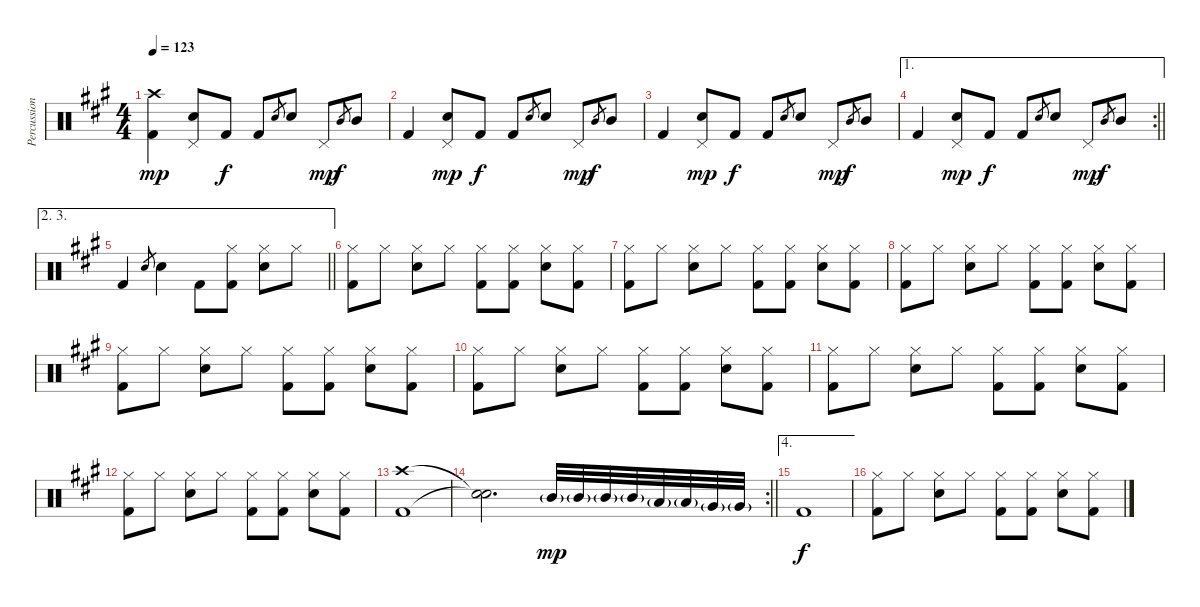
\track ("Percussion" "Percussion") {instrument percussion}
\staff {score}
\articulation defaults
\ts (4 4)
\tempo 123
\clef neutral
\ks a
("Crash high (hit)" "Kick (hit) 2").4{dy mp} ("Snare (hit) 2" "Pedal Hi-Hat (hit)").8 "Kick (hit) 2".8{dy f} "Kick (hit) 2".8 "Snare (hit) 2".8{gr} "Snare (hit) 2".8 "Pedal Hi-Hat (hit)".8{dy mp} "Mid Tom (hit)".8{gr dy f} "Mid Tom (hit)".8 |
"Kick (hit) 2".4 ("Snare (hit) 2" "Pedal Hi-Hat (hit)").8{dy mp} "Kick (hit) 2".8{dy f} "Kick (hit) 2".8 "Snare (hit) 2".8{gr} "Snare (hit) 2".8 "Pedal Hi-Hat (hit)".8{dy mp} "Mid Tom (hit)".8{gr dy f} "Mid Tom (hit)".8 |
"Kick (hit) 2".4 ("Snare (hit) 2" "Pedal Hi-Hat (hit)").8{dy mp} "Kick (hit) 2".8{dy f} "Kick (hit) 2".8 "Snare (hit) 2".8{gr} "Snare (hit) 2".8 "Pedal Hi-Hat (hit)".8{dy mp} "Mid Tom (hit)".8{gr dy f} "Mid Tom (hit)".8 |
\ae 1
\rc 2
\barLineRight lightlight "Kick (hit) 2".4
("Snare (hit) 2" "Pedal Hi-Hat (hit)").8{dy mp} "Kick (hit) 2".8{dy f} "Kick (hit) 2".8 "Snare (hit) 2".8{gr} "Snare (hit) 2".8 "Pedal Hi-Hat (hit)".8{dy mp} "Mid Tom (hit)".8{gr dy f} "Mid Tom (hit)".8 |
\ae (2 3)
\barLineRight lightlight "Kick (hit) 2".4 "Snare (hit) 2".8{gr} "Snare (hit) 2".4 "Kick (hit) 2".8
("Hi-Hat (closed)" "Kick (hit) 2").8 ("Hi-Hat (closed)" "Snare (hit) 2").8 "Hi-Hat (closed)".8 |
("Hi-Hat (closed)" "Kick (hit) 2").8 "Hi-Hat (closed)".8 ("Hi-Hat (closed)" "Snare (hit) 2").8 "Hi-Hat (closed)".8 ("Hi-Hat (closed)" "Kick (hit) 2").8 ("Hi-Hat (closed)" "Kick (hit) 2").8 ("Hi-Hat (closed)" "Snare (hit) 2").8 ("Hi-Hat (closed)" "Kick (hit) 2").8 |
("Hi-Hat (closed)" "Kick (hit) 2").8 "Hi-Hat (closed)".8 ("Hi-Hat (closed)" "Snare (hit) 2").8 "Hi-Hat (closed)".8 ("Hi-Hat (closed)" "Kick (hit) 2").8 ("Hi-Hat (closed)" "Kick (hit) 2").8 ("Hi-Hat (closed)" "Snare (hit) 2").8 ("Hi-Hat (closed)" "Kick (hit) 2").8 |
("Hi-Hat (closed)" "Kick (hit) 2").8 "Hi-Hat (closed)".8 ("Hi-Hat (closed)" "Snare (hit) 2").8 "Hi-Hat (closed)".8 ("Hi-Hat (closed)" "Kick (hit) 2").8 ("Hi-Hat (closed)" "Kick (hit) 2").8 ("Hi-Hat (closed)" "Snare (hit) 2").8 ("Hi-Hat (closed)" "Kick (hit) 2").8 |
("Hi-Hat (closed)" "Kick (hit) 2").8 "Hi-Hat (closed)".8 ("Hi-Hat (closed)" "Snare (hit) 2").8 "Hi-Hat (closed)".8 ("Hi-Hat (closed)" "Kick (hit) 2").8 ("Hi-Hat (closed)" "Kick (hit) 2").8 ("Hi-Hat (closed)" "Snare (hit) 2").8 ("Hi-Hat (closed)" "Kick (hit) 2").8 |
("Hi-Hat (closed)" "Kick (hit) 2").8 "Hi-Hat (closed)".8 ("Hi-Hat (closed)" "Snare (hit) 2").8 "Hi-Hat (closed)".8 ("Hi-Hat (closed)" "Kick (hit) 2").8 ("Hi-Hat (closed)" "Kick (hit) 2").8 ("Hi-Hat (closed)" "Snare (hit) 2").8 ("Hi-Hat (closed)" "Kick (hit) 2").8 |
("Hi-Hat (closed)" "Kick (hit) 2").8 "Hi-Hat (closed)".8 ("Hi-Hat (closed)" "Snare (hit) 2").8 "Hi-Hat (closed)".8 ("Hi-Hat (closed)" "Kick (hit) 2").8 ("Hi-Hat (closed)" "Kick (hit) 2").8 ("Hi-Hat (closed)" "Snare (hit) 2").8 ("Hi-Hat (closed)" "Kick (hit) 2").8 |
("Hi-Hat (closed)" "Kick (hit) 2").8 "Hi-Hat (closed)".8 ("Hi-Hat (closed)" "Snare (hit) 2").8 "Hi-Hat (closed)".8 ("Hi-Hat (closed)" "Kick (hit) 2").8 ("Hi-Hat (closed)" "Kick (hit) 2").8 ("Hi-Hat (closed)" "Snare (hit) 2").8 ("Hi-Hat (closed)" "Kick (hit) 2").8 |
("Crash high (hit)" "Kick (hit) 2").1 |
\rc 2
\barLineRight lightlight
("Snare (hit)"{t} "Snare (hit)"{t}).2{d} "Mid Tom (hit)"{g}.32{dy mp} "Mid Tom (hit)"{g}.32 "Mid Tom (hit)"{g}.32 "Mid Tom (hit)"{g}.32 "Low Tom (hit)"{g}.32 "Low Tom (hit)"{g}.32 "Very Low Tom (hit)"{g}.32 "Very Low Tom (hit)"{g}.32 |
\ae 4 "Kick (hit) 2".1{dy f}
|
("Hi-Hat (closed)" "Kick (hit) 2").8 "Hi-Hat (closed)".8 ("Hi-Hat (closed)" "Snare (hit) 2").8 "Hi-Hat (closed)".8 ("Hi-Hat (closed)" "Kick (hit) 2").8 ("Hi-Hat (closed)" "Kick (hit) 2").8 ("Hi-Hat (closed)" "Snare (hit) 2").8 ("Hi-Hat (closed)" "Kick (hit) 2").8
